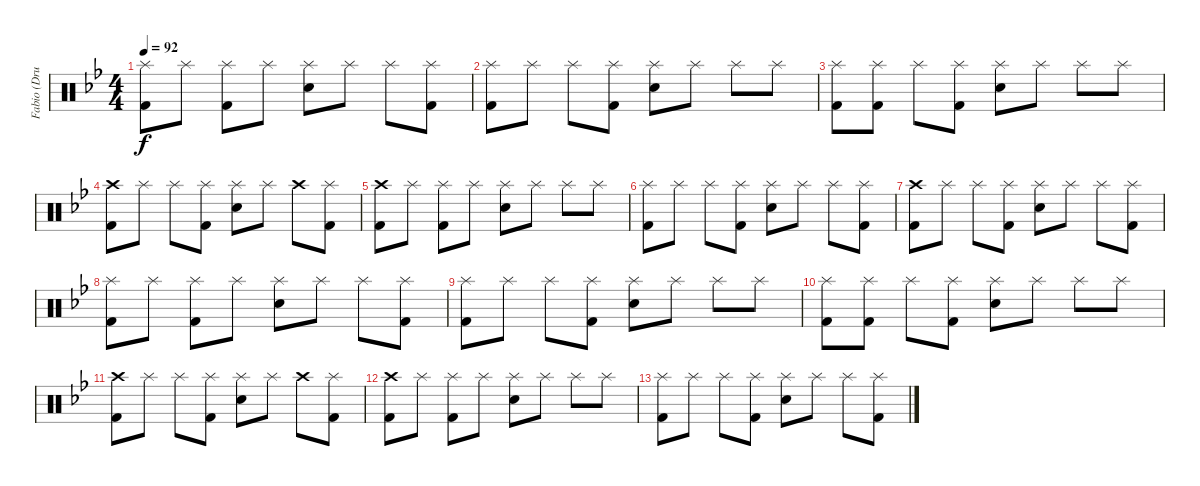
\track ("Fabio (Drums)" "Fabio (Dru") {instrument percussion}
\staff {score}
\articulation defaults
\ts (4 4)
\tempo 92
\clef neutral
\ks gminor
("Splash (hit)" "Kick (hit) 2").8{dy f} "Splash (hit)".8 ("Splash (hit)" "Kick (hit) 2").8 "Splash (hit)".8 ("Splash (hit)" "Snare (hit) 2").8 "Splash (hit)".8 "Splash (hit)".8 ("Splash (hit)" "Kick (hit) 2").8 |
("Splash (hit)" "Kick (hit) 2").8 "Splash (hit)".8 "Splash (hit)".8 ("Splash (hit)" "Kick (hit) 2").8 ("Splash (hit)" "Snare (hit) 2").8 "Splash (hit)".8 "Splash (hit)".8 "Splash (hit)".8 |
("Splash (hit)" "Kick (hit) 2").8 ("Splash (hit)" "Kick (hit) 2").8 "Splash (hit)".8 ("Splash (hit)" "Kick (hit) 2").8 ("Splash (hit)" "Snare (hit) 2").8 "Splash (hit)".8 "Splash (hit)".8 "Splash (hit)".8 |
("Crash high (hit)" "Kick (hit) 2").8 "Splash (hit)".8 "Splash (hit)".8 ("Splash (hit)" "Kick (hit) 2").8 ("Splash (hit)" "Snare (hit) 2").8 "Splash (hit)".8 "Crash high (hit)".8 ("Splash (hit)" "Kick (hit) 2").8 |
("Crash high (hit)" "Kick (hit) 2").8 "Splash (hit)".8 ("Splash (hit)" "Kick (hit) 2").8 "Splash (hit)".8 ("Splash (hit)" "Snare (hit) 2").8 "Splash (hit)".8 "Splash (hit)".8 "Splash (hit)".8 |
("Splash (hit)" "Kick (hit) 2").8 "Splash (hit)".8 "Splash (hit)".8 ("Splash (hit)" "Kick (hit) 2").8 ("Splash (hit)" "Snare (hit) 2").8 "Splash (hit)".8 "Splash (hit)".8 ("Splash (hit)" "Kick (hit) 2").8 |
("Crash high (hit)" "Kick (hit) 2").8 "Splash (hit)".8 "Splash (hit)".8 ("Splash (hit)" "Kick (hit) 2").8 ("Splash (hit)" "Snare (hit) 2").8 "Splash (hit)".8 "Splash (hit)".8 ("Splash (hit)" "Kick (hit) 2").8 |
("Splash (hit)" "Kick (hit) 2").8 "Splash (hit)".8 ("Splash (hit)" "Kick (hit) 2").8 "Splash (hit)".8 ("Splash (hit)" "Snare (hit) 2").8 "Splash (hit)".8 "Splash (hit)".8 ("Splash (hit)" "Kick (hit) 2").8 |
("Splash (hit)" "Kick (hit) 2").8 "Splash (hit)".8 "Splash (hit)".8 ("Splash (hit)" "Kick (hit) 2").8 ("Splash (hit)" "Snare (hit) 2").8 "Splash (hit)".8 "Splash (hit)".8 "Splash (hit)".8 |
("Splash (hit)" "Kick (hit) 2").8 ("Splash (hit)" "Kick (hit) 2").8 "Splash (hit)".8 ("Splash (hit)" "Kick (hit) 2").8 ("Splash (hit)" "Snare (hit) 2").8 "Splash (hit)".8 "Splash (hit)".8 "Splash (hit)".8 |
("Crash high (hit)" "Kick (hit) 2").8 "Splash (hit)".8 "Splash (hit)".8 ("Splash (hit)" "Kick (hit) 2").8 ("Splash (hit)" "Snare (hit) 2").8 "Splash (hit)".8 "Crash high (hit)".8 ("Splash (hit)" "Kick (hit) 2").8 |
("Crash high (hit)" "Kick (hit) 2").8 "Splash (hit)".8 ("Splash (hit)" "Kick (hit) 2").8 "Splash (hit)".8 ("Splash (hit)" "Snare (hit) 2").8 "Splash (hit)".8 "Splash (hit)".8 "Splash (hit)".8 |
("Splash (hit)" "Kick (hit) 2").8 "Splash (hit)".8 "Splash (hit)".8 ("Splash (hit)" "Kick (hit) 2").8 ("Splash (hit)" "Snare (hit) 2").8 "Splash (hit)".8 "Splash (hit)".8 ("Splash (hit)" "Kick (hit) 2").8
